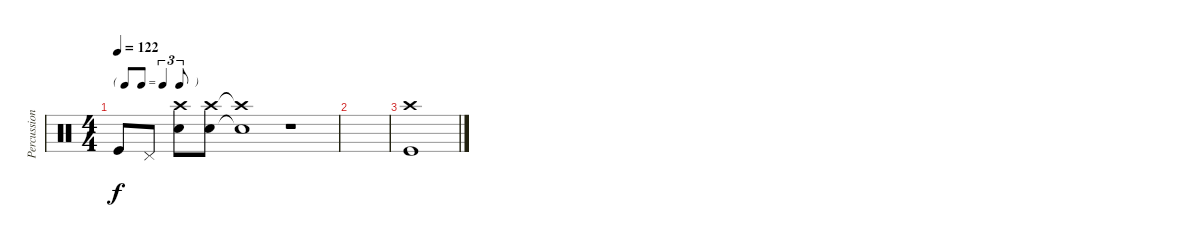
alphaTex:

\track ("Percussion" "Percussion") {instrument percussion}
\staff {score}
\articulation defaults
\ts (4 4)
\tf triplet8th
\tempo 122
\clef neutral
\ks c "Kick (hit)".8{dy f} "Pedal Hi-Hat (hit)".8
("Crash high (hit)" "Snare (hit) 2").8 ("Crash high (hit)" "Snare (hit) 2").8 ("Crash high (hit)"{t} "Snare (hit) 2"{t}).1 r.1 |
|
("Crash high (hit)" "Kick (hit)").1
